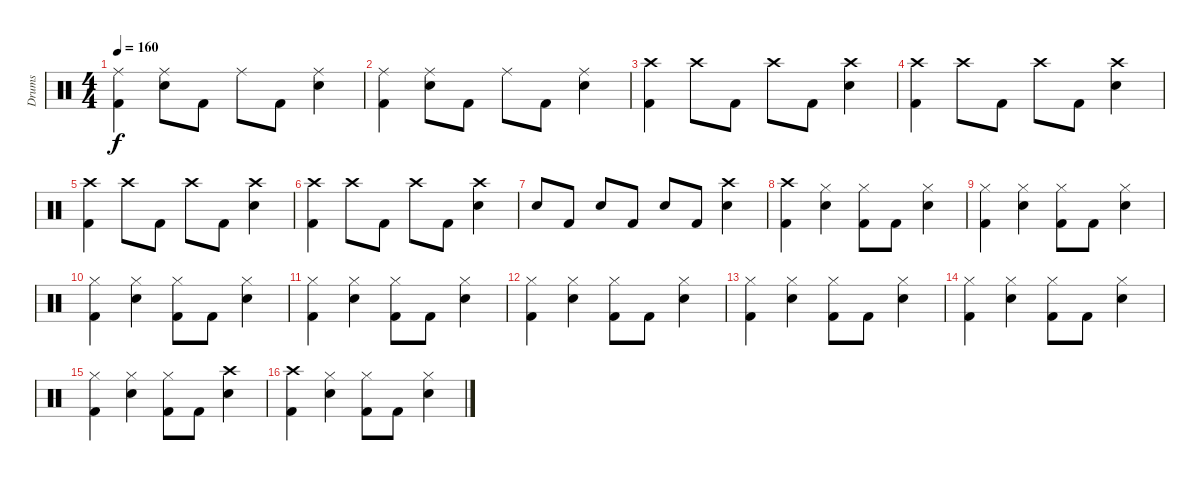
\track ("Drums" "Drums") {instrument percussion}
\staff {score}
\articulation defaults
\ts (4 4)
\tempo 160
\clef neutral
\ks c
("Ride (middle)" "Kick (hit) 2").4{dy f} ("Ride (middle)" "Snare (hit) 2").8 "Kick (hit) 2".8 "Ride (middle)".8 "Kick (hit) 2".8 ("Ride (middle)" "Snare (hit) 2").4 |
("Ride (middle)" "Kick (hit) 2").4 ("Ride (middle)" "Snare (hit) 2").8 "Kick (hit) 2".8 "Ride (middle)".8 "Kick (hit) 2".8 ("Ride (middle)" "Snare (hit) 2").4 |
("Crash high (hit)" "Kick (hit) 2").4 "Crash high (hit)".8 "Kick (hit) 2".8 "Crash high (hit)".8 "Kick (hit) 2".8 ("Crash high (hit)" "Snare (hit) 2").4 |
("Crash high (hit)" "Kick (hit) 2").4 "Crash high (hit)".8 "Kick (hit) 2".8 "Crash high (hit)".8 "Kick (hit) 2".8 ("Crash high (hit)" "Snare (hit) 2").4 |
("Crash high (hit)" "Kick (hit) 2").4 "Crash high (hit)".8 "Kick (hit) 2".8 "Crash high (hit)".8 "Kick (hit) 2".8 ("Crash high (hit)" "Snare (hit) 2").4 |
("Crash high (hit)" "Kick (hit) 2").4 "Crash high (hit)".8 "Kick (hit) 2".8 "Crash high (hit)".8 "Kick (hit) 2".8 ("Crash high (hit)" "Snare (hit) 2").4 |
"Snare (hit) 2".8 "Kick (hit) 2".8 "Snare (hit) 2".8 "Kick (hit) 2".8 "Snare (hit) 2".8 "Kick (hit) 2".8 ("Crash high (hit)" "Snare (hit) 2").4 |
("Crash high (hit)" "Kick (hit) 2").4 ("Hi-Hat (closed)" "Snare (hit) 2").4 ("Hi-Hat (closed)" "Kick (hit) 2").8 "Kick (hit) 2".8 ("Hi-Hat (closed)" "Snare (hit) 2").4 |
("Hi-Hat (closed)" "Kick (hit) 2").4 ("Hi-Hat (closed)" "Snare (hit) 2").4 ("Hi-Hat (closed)" "Kick (hit) 2").8 "Kick (hit) 2".8 ("Hi-Hat (closed)" "Snare (hit) 2").4 |
("Hi-Hat (closed)" "Kick (hit) 2").4 ("Hi-Hat (closed)" "Snare (hit) 2").4 ("Hi-Hat (closed)" "Kick (hit) 2").8 "Kick (hit) 2".8 ("Hi-Hat (closed)" "Snare (hit) 2").4 |
("Hi-Hat (closed)" "Kick (hit) 2").4 ("Hi-Hat (closed)" "Snare (hit) 2").4 ("Hi-Hat (closed)" "Kick (hit) 2").8 "Kick (hit) 2".8 ("Hi-Hat (closed)" "Snare (hit) 2").4 |
("Hi-Hat (closed)" "Kick (hit) 2").4 ("Hi-Hat (closed)" "Snare (hit) 2").4 ("Hi-Hat (closed)" "Kick (hit) 2").8 "Kick (hit) 2".8 ("Hi-Hat (closed)" "Snare (hit) 2").4 |
("Hi-Hat (closed)" "Kick (hit) 2").4 ("Hi-Hat (closed)" "Snare (hit) 2").4 ("Hi-Hat (closed)" "Kick (hit) 2").8 "Kick (hit) 2".8 ("Hi-Hat (closed)" "Snare (hit) 2").4 |
("Hi-Hat (closed)" "Kick (hit) 2").4 ("Hi-Hat (closed)" "Snare (hit) 2").4 ("Hi-Hat (closed)" "Kick (hit) 2").8 "Kick (hit) 2".8 ("Hi-Hat (closed)" "Snare (hit) 2").4 |
("Hi-Hat (closed)" "Kick (hit) 2").4 ("Hi-Hat (closed)" "Snare (hit) 2").4 ("Hi-Hat (closed)" "Kick (hit) 2").8 "Kick (hit) 2".8 ("Crash high (hit)" "Snare (hit) 2").4 |
("Crash high (hit)" "Kick (hit) 2").4 ("Hi-Hat (closed)" "Snare (hit) 2").4 ("Hi-Hat (closed)" "Kick (hit) 2").8 "Kick (hit) 2".8 ("Hi-Hat (closed)" "Snare (hit) 2").4
